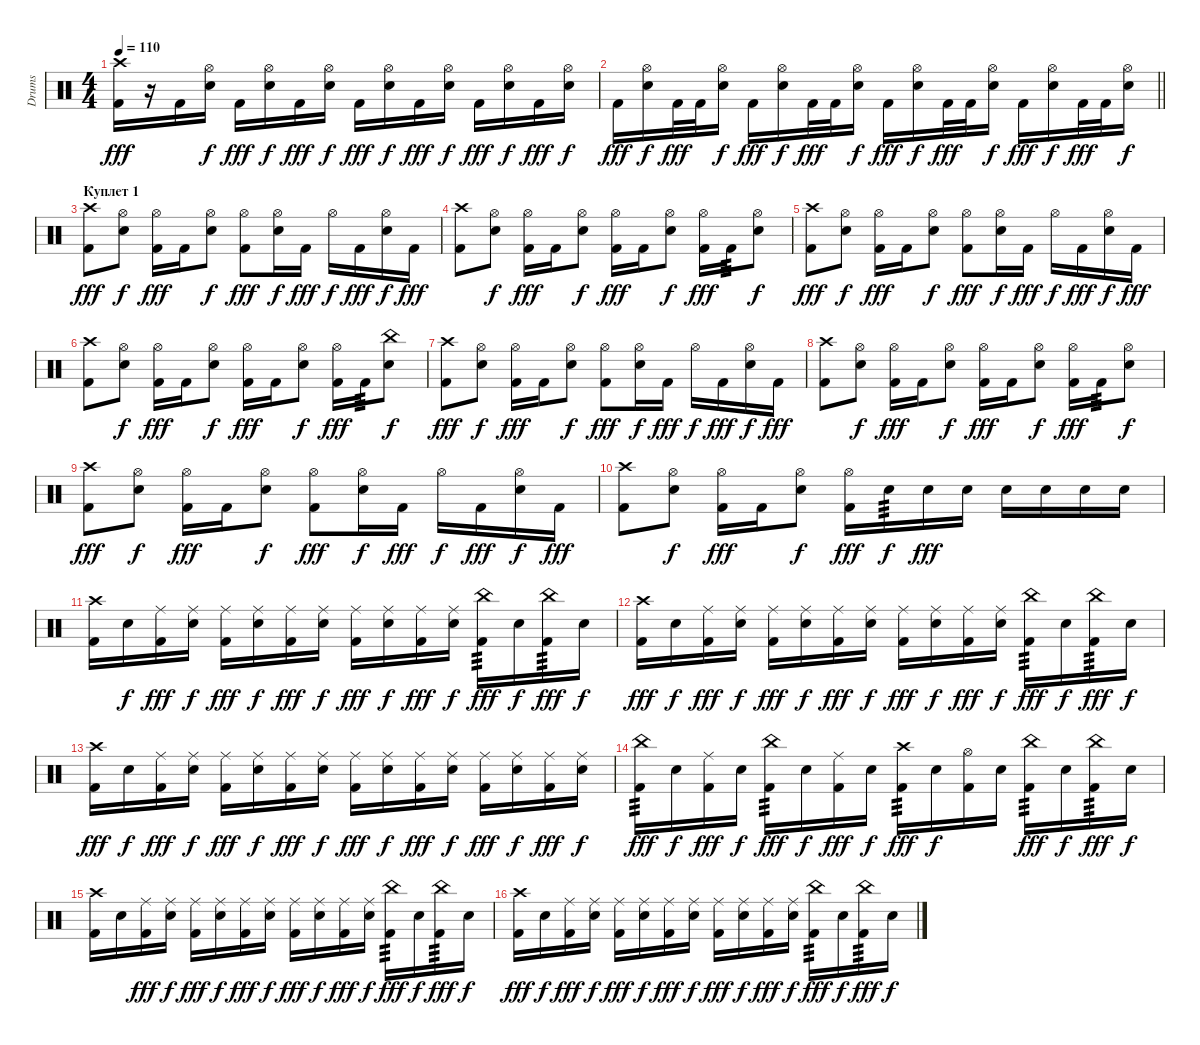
\track ("Drums" "Drums") {instrument percussion}
\staff {score}
\articulation defaults
\ts (4 4)
\tempo 110
\clef neutral
\ks c
("Crash high (hit)" "Kick (hit) 2").16{dy fff} r.16 "Kick (hit) 2".16 ("Hi-Hat (open)" "Snare (hit) 2").16{dy f} "Kick (hit) 2".16{dy fff} ("Hi-Hat (open)" "Snare (hit) 2").16{dy f} "Kick (hit) 2".16{dy fff} ("Hi-Hat (open)" "Snare (hit) 2").16{dy f} "Kick (hit) 2".16{dy fff} ("Hi-Hat (open)" "Snare (hit) 2").16{dy f} "Kick (hit) 2".16{dy fff} ("Hi-Hat (open)" "Snare (hit) 2").16{dy f} "Kick (hit) 2".16{dy fff} ("Hi-Hat (open)" "Snare (hit) 2").16{dy f} "Kick (hit) 2".16{dy fff} ("Hi-Hat (open)" "Snare (hit) 2").16{dy f} |
\barLineRight lightlight "Kick (hit) 2".16{dy fff}
("Hi-Hat (open)" "Snare (hit) 2").16{dy f} "Kick (hit) 2".32{dy fff} "Kick (hit) 2".32 ("Hi-Hat (open)" "Snare (hit) 2").16{dy f} "Kick (hit) 2".16{dy fff} ("Hi-Hat (open)" "Snare (hit) 2").16{dy f} "Kick (hit) 2".32{dy fff} "Kick (hit) 2".32 ("Hi-Hat (open)" "Snare (hit) 2").16{dy f} "Kick (hit) 2".16{dy fff} ("Hi-Hat (open)" "Snare (hit) 2").16{dy f} "Kick (hit) 2".32{dy fff} "Kick (hit) 2".32 ("Hi-Hat (open)" "Snare (hit) 2").16{dy f} "Kick (hit) 2".16{dy fff} ("Hi-Hat (open)" "Snare (hit) 2").16{dy f} "Kick (hit) 2".32{dy fff} "Kick (hit) 2".32 ("Hi-Hat (open)" "Snare (hit) 2").16{dy f} |
\section ("" "Куплет 1")
("Crash high (hit)" "Kick (hit) 2").8{dy fff} ("Hi-Hat (open)" "Snare (hit) 2").8{dy f} ("Hi-Hat (open)" "Kick (hit) 2").16{dy fff} "Kick (hit) 2".16 ("Hi-Hat (open)" "Snare (hit) 2").8{dy f} ("Hi-Hat (open)" "Kick (hit) 2").8{dy fff} ("Hi-Hat (open)" "Snare (hit) 2").16{dy f} "Kick (hit) 2".16{dy fff} "Hi-Hat (open)".16{dy f} "Kick (hit) 2".16{dy fff} ("Hi-Hat (open)" "Snare (hit) 2").16{dy f} "Kick (hit) 2".16{dy fff} |
("Crash high (hit)" "Kick (hit) 2").8 ("Hi-Hat (open)" "Snare (hit) 2").8{dy f} ("Hi-Hat (open)" "Kick (hit) 2").16{dy fff} "Kick (hit) 2".16 ("Hi-Hat (open)" "Snare (hit) 2").8{dy f} ("Hi-Hat (open)" "Kick (hit) 2").16{dy fff} "Kick (hit) 2".16 ("Hi-Hat (open)" "Snare (hit) 2").8{dy f} ("Hi-Hat (open)" "Kick (hit) 2").16{dy fff} "Kick (hit) 2".16{tp 3} ("Hi-Hat (open)" "Snare (hit) 2").8{dy f} |
("Crash high (hit)" "Kick (hit) 2").8{dy fff} ("Hi-Hat (open)" "Snare (hit) 2").8{dy f} ("Hi-Hat (open)" "Kick (hit) 2").16{dy fff} "Kick (hit) 2".16 ("Hi-Hat (open)" "Snare (hit) 2").8{dy f} ("Hi-Hat (open)" "Kick (hit) 2").8{dy fff} ("Hi-Hat (open)" "Snare (hit) 2").16{dy f} "Kick (hit) 2".16{dy fff} "Hi-Hat (open)".16{dy f} "Kick (hit) 2".16{dy fff} ("Hi-Hat (open)" "Snare (hit) 2").16{dy f} "Kick (hit) 2".16{dy fff} |
("Crash high (hit)" "Kick (hit) 2").8 ("Hi-Hat (open)" "Snare (hit) 2").8{dy f} ("Hi-Hat (open)" "Kick (hit) 2").16{dy fff} "Kick (hit) 2".16 ("Hi-Hat (open)" "Snare (hit) 2").8{dy f} ("Hi-Hat (open)" "Kick (hit) 2").16{dy fff} "Kick (hit) 2".16 ("Hi-Hat (open)" "Snare (hit) 2").8{dy f} ("Hi-Hat (open)" "Kick (hit) 2").16{dy fff} "Kick (hit) 2".16{tp 3} ("China (hit)" "Snare (hit) 2").8{dy f} |
("Crash high (hit)" "Kick (hit) 2").8{dy fff} ("Hi-Hat (open)" "Snare (hit) 2").8{dy f} ("Hi-Hat (open)" "Kick (hit) 2").16{dy fff} "Kick (hit) 2".16 ("Hi-Hat (open)" "Snare (hit) 2").8{dy f} ("Hi-Hat (open)" "Kick (hit) 2").8{dy fff} ("Hi-Hat (open)" "Snare (hit) 2").16{dy f} "Kick (hit) 2".16{dy fff} "Hi-Hat (open)".16{dy f} "Kick (hit) 2".16{dy fff} ("Hi-Hat (open)" "Snare (hit) 2").16{dy f} "Kick (hit) 2".16{dy fff} |
("Crash high (hit)" "Kick (hit) 2").8 ("Hi-Hat (open)" "Snare (hit) 2").8{dy f} ("Hi-Hat (open)" "Kick (hit) 2").16{dy fff} "Kick (hit) 2".16 ("Hi-Hat (open)" "Snare (hit) 2").8{dy f} ("Hi-Hat (open)" "Kick (hit) 2").16{dy fff} "Kick (hit) 2".16 ("Hi-Hat (open)" "Snare (hit) 2").8{dy f} ("Hi-Hat (open)" "Kick (hit) 2").16{dy fff} "Kick (hit) 2".16{tp 3} ("Hi-Hat (open)" "Snare (hit) 2").8{dy f} |
("Crash high (hit)" "Kick (hit) 2").8{dy fff} ("Hi-Hat (open)" "Snare (hit) 2").8{dy f} ("Hi-Hat (open)" "Kick (hit) 2").16{dy fff} "Kick (hit) 2".16 ("Hi-Hat (open)" "Snare (hit) 2").8{dy f} ("Hi-Hat (open)" "Kick (hit) 2").8{dy fff} ("Hi-Hat (open)" "Snare (hit) 2").16{dy f} "Kick (hit) 2".16{dy fff} "Hi-Hat (open)".16{dy f} "Kick (hit) 2".16{dy fff} ("Hi-Hat (open)" "Snare (hit) 2").16{dy f} "Kick (hit) 2".16{dy fff} |
("Crash high (hit)" "Kick (hit) 2").8 ("Hi-Hat (open)" "Snare (hit) 2").8{dy f} ("Hi-Hat (open)" "Kick (hit) 2").16{dy fff} "Kick (hit) 2".16 ("Hi-Hat (open)" "Snare (hit) 2").8{dy f} ("Hi-Hat (open)" "Kick (hit) 2").16{dy fff} "Snare (hit) 2".16{tp 3 dy f} "Snare (hit) 2".16{dy fff} "Snare (hit) 2".16 "Snare (hit) 2".16 "Snare (hit) 2".16 "Snare (hit) 2".16 "Snare (hit) 2".16 |
("Crash high (hit)" "Kick (hit) 2").16 "Snare (hit) 2".16{dy f} ("Ride (middle)" "Kick (hit) 2").16{dy fff} ("Ride (middle)" "Snare (hit) 2").16{dy f} ("Ride (middle)" "Kick (hit) 2").16{dy fff} ("Ride (middle)" "Snare (hit) 2").16{dy f} ("Ride (middle)" "Kick (hit) 2").16{dy fff} ("Ride (middle)" "Snare (hit) 2").16{dy f} ("Ride (middle)" "Kick (hit) 2").16{dy fff} ("Ride (middle)" "Snare (hit) 2").16{dy f} ("Ride (middle)" "Kick (hit) 2").16{dy fff} ("Ride (middle)" "Snare (hit) 2").16{dy f} ("China (hit)" "Kick (hit) 2").16{tp 3 dy fff} "Snare (hit) 2".16{dy f} ("China (hit)" "Kick (hit) 2").16{tp 3 dy fff} "Snare (hit) 2".16{dy f} |
("Crash high (hit)" "Kick (hit) 2").16{dy fff} "Snare (hit) 2".16{dy f} ("Ride (middle)" "Kick (hit) 2").16{dy fff} ("Ride (middle)" "Snare (hit) 2").16{dy f} ("Ride (middle)" "Kick (hit) 2").16{dy fff} ("Ride (middle)" "Snare (hit) 2").16{dy f} ("Ride (middle)" "Kick (hit) 2").16{dy fff} ("Ride (middle)" "Snare (hit) 2").16{dy f} ("Ride (middle)" "Kick (hit) 2").16{dy fff} ("Ride (middle)" "Snare (hit) 2").16{dy f} ("Ride (middle)" "Kick (hit) 2").16{dy fff} ("Ride (middle)" "Snare (hit) 2").16{dy f} ("China (hit)" "Kick (hit) 2").16{tp 3 dy fff} "Snare (hit) 2".16{dy f} ("China (hit)" "Kick (hit) 2").16{tp 3 dy fff} "Snare (hit) 2".16{dy f} |
("Crash high (hit)" "Kick (hit) 2").16{dy fff} "Snare (hit) 2".16{dy f} ("Ride (middle)" "Kick (hit) 2").16{dy fff} ("Ride (middle)" "Snare (hit) 2").16{dy f} ("Ride (middle)" "Kick (hit) 2").16{dy fff} ("Ride (middle)" "Snare (hit) 2").16{dy f} ("Ride (middle)" "Kick (hit) 2").16{dy fff} ("Ride (middle)" "Snare (hit) 2").16{dy f} ("Ride (middle)" "Kick (hit) 2").16{dy fff} ("Ride (middle)" "Snare (hit) 2").16{dy f} ("Ride (middle)" "Kick (hit) 2").16{dy fff} ("Ride (middle)" "Snare (hit) 2").16{dy f} ("Ride (middle)" "Kick (hit) 2").16{dy fff} ("Ride (middle)" "Snare (hit) 2").16{dy f} ("Ride (middle)" "Kick (hit) 2").16{dy fff} ("Ride (middle)" "Snare (hit) 2").16{dy f} |
("China (hit)" "Kick (hit) 2").16{tp 3 dy fff} "Snare (hit) 2".16{dy f} ("Ride (middle)" "Kick (hit) 2").16{dy fff} "Snare (hit) 2".16{dy f} ("China (hit)" "Kick (hit) 2").16{tp 3 dy fff} "Snare (hit) 2".16{dy f} ("Ride (middle)" "Kick (hit) 2").16{dy fff} "Snare (hit) 2".16{dy f} ("Crash high (hit)" "Kick (hit) 2").16{tp 3 dy fff} "Snare (hit) 2".16{dy f} ("Hi-Hat (open)" "Kick (hit) 2").16 "Snare (hit) 2".16 ("China (hit)" "Kick (hit) 2").16{tp 3 dy fff} "Snare (hit) 2".16{dy f} ("China (hit)" "Kick (hit) 2").16{tp 3 dy fff} "Snare (hit) 2".16{dy f} |
("Crash high (hit)" "Kick (hit) 2").16 "Snare (hit) 2".16 ("Ride (middle)" "Kick (hit) 2").16{dy fff} ("Ride (middle)" "Snare (hit) 2").16{dy f} ("Ride (middle)" "Kick (hit) 2").16{dy fff} ("Ride (middle)" "Snare (hit) 2").16{dy f} ("Ride (middle)" "Kick (hit) 2").16{dy fff} ("Ride (middle)" "Snare (hit) 2").16{dy f} ("Ride (middle)" "Kick (hit) 2").16{dy fff} ("Ride (middle)" "Snare (hit) 2").16{dy f} ("Ride (middle)" "Kick (hit) 2").16{dy fff} ("Ride (middle)" "Snare (hit) 2").16{dy f} ("China (hit)" "Kick (hit) 2").16{tp 3 dy fff} "Snare (hit) 2".16{dy f} ("China (hit)" "Kick (hit) 2").16{tp 3 dy fff} "Snare (hit) 2".16{dy f} |
("Crash high (hit)" "Kick (hit) 2").16{dy fff} "Snare (hit) 2".16{dy f} ("Ride (middle)" "Kick (hit) 2").16{dy fff} ("Ride (middle)" "Snare (hit) 2").16{dy f} ("Ride (middle)" "Kick (hit) 2").16{dy fff} ("Ride (middle)" "Snare (hit) 2").16{dy f} ("Ride (middle)" "Kick (hit) 2").16{dy fff} ("Ride (middle)" "Snare (hit) 2").16{dy f} ("Ride (middle)" "Kick (hit) 2").16{dy fff} ("Ride (middle)" "Snare (hit) 2").16{dy f} ("Ride (middle)" "Kick (hit) 2").16{dy fff} ("Ride (middle)" "Snare (hit) 2").16{dy f} ("China (hit)" "Kick (hit) 2").16{tp 3 dy fff} "Snare (hit) 2".16{dy f} ("China (hit)" "Kick (hit) 2").16{tp 3 dy fff} "Snare (hit) 2".16{dy f}
